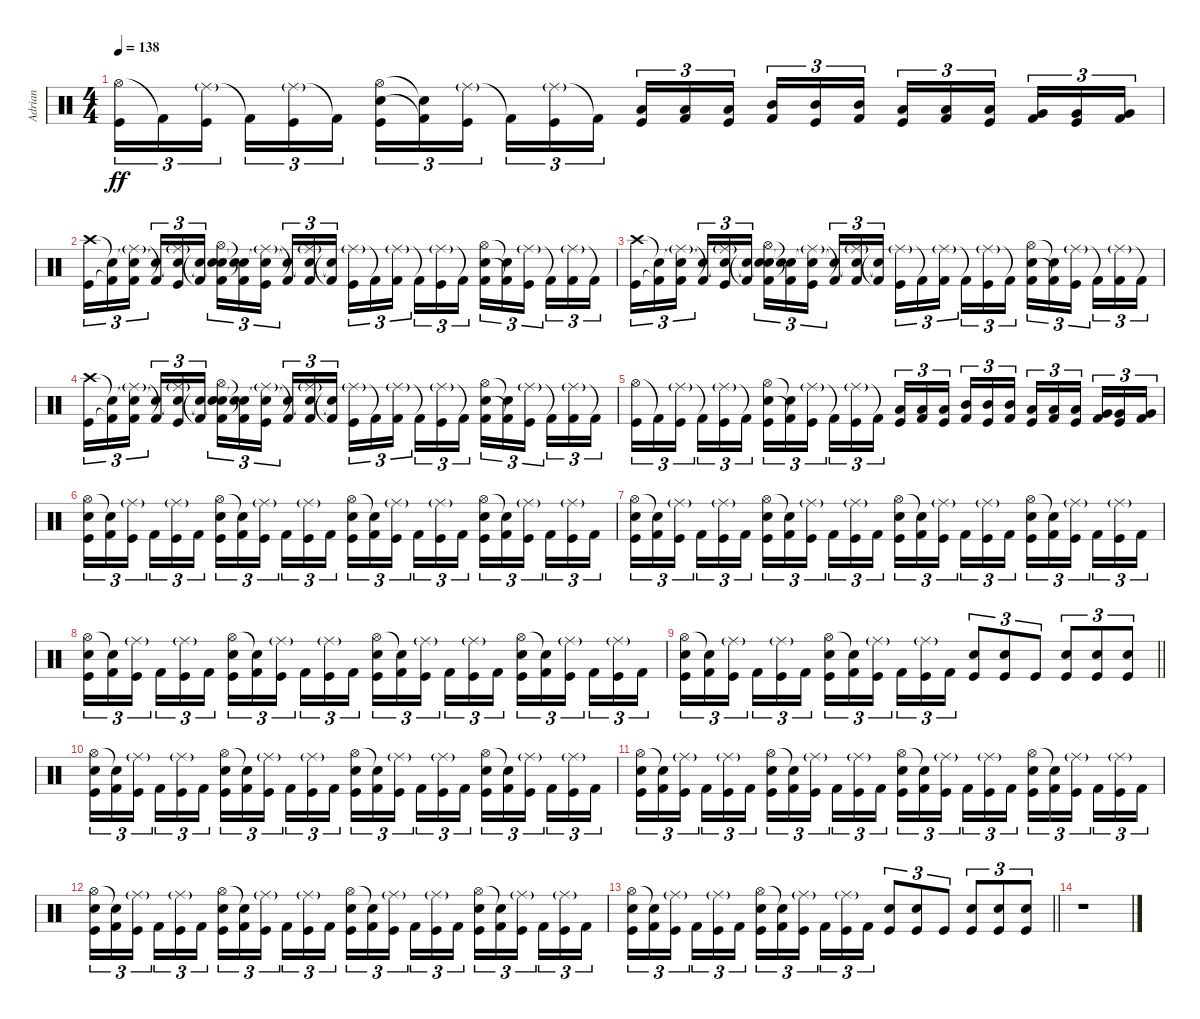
\track ("Adrian" "Adrian") {instrument percussion}
\staff {score}
\articulation defaults
\ts (4 4)
\tempo 138
\clef neutral
\ks c
("Hi-Hat (open)" "Kick (hit)").16{tu (3 2) dy ff} "Kick (hit) 2"{t}.16{tu (3 2)} ("Ride (middle)"{g} "Kick (hit)").16{tu (3 2) beam splitsecondary} "Kick (hit) 2"{t}.16{tu (3 2)} ("Ride (middle)"{g} "Kick (hit)").16{tu (3 2)} "Kick (hit) 2"{t}.16{tu (3 2)} ("Hi-Hat (open)" "Electric Snare (hit)" "Kick (hit)").16{tu (3 2)} ("Snare (hit)"{t} "Kick (hit) 2"{t}).16{tu (3 2)} ("Ride (middle)"{g} "Kick (hit)").16{tu (3 2) beam splitsecondary} "Kick (hit) 2"{t}.16{tu (3 2)} ("Ride (middle)"{g} "Kick (hit)").16{tu (3 2)} "Kick (hit) 2"{t}.16{tu (3 2)} ("Low Floor Tom (hit)" "Kick (hit)").16{tu (3 2)} ("Low Floor Tom (hit)" "Kick (hit) 2").16{tu (3 2)} ("Low Floor Tom (hit)" "Kick (hit)").16{tu (3 2) beam splitsecondary} ("Mid Tom (hit)" "Kick (hit) 2").16{tu (3 2)} ("Mid Tom (hit)" "Kick (hit)").16{tu (3 2)} ("Mid Tom (hit)" "Kick (hit) 2").16{tu (3 2)} ("Low Tom (hit)" "Kick (hit)").16{tu (3 2)} ("Low Tom (hit)" "Kick (hit) 2").16{tu (3 2)} ("Low Tom (hit)" "Kick (hit)").16{tu (3 2) beam splitsecondary} ("Very Low Tom (hit)" "Kick (hit) 2").16{tu (3 2)} ("Very Low Tom (hit)" "Kick (hit)").16{tu (3 2)} ("Very Low Tom (hit)" "Kick (hit) 2").16{tu (3 2)} |
("Crash high (hit)" "Kick (hit)").16{tu (3 2)} ("Snare (hit)"{t} "Kick (hit) 2"{t}).16{tu (3 2)} ("Snare (hit)"{t} "Ride (middle)"{g} "Kick (hit) 2").16{tu (3 2) beam splitsecondary} ("Snare (hit)"{t} "Kick (hit) 2"{t}).16{tu (3 2)} ("Snare (hit)"{t} "Ride (middle)"{g} "Kick (hit)").16{tu (3 2)} ("Snare (hit)"{t} "Kick (hit) 2"{t}).16{tu (3 2)} ("Snare (hit)"{t} "Hi-Hat (open)" "Electric Snare (hit)" "Kick (hit) 2").16{tu (3 2)} ("Snare (hit)"{t} "Snare (hit)"{t} "Kick (hit) 2"{t}).16{tu (3 2)} ("Snare (hit)"{t} "Ride (middle)"{g} "Kick (hit)").16{tu (3 2) beam splitsecondary} ("Snare (hit)"{t} "Kick (hit) 2"{t}).16{tu (3 2)} ("Snare (hit)"{t} "Ride (middle)"{g} "Kick (hit) 2").16{tu (3 2)} ("Snare (hit)"{t} "Kick (hit) 2"{t}).16{tu (3 2)} ("Ride (middle)"{g} "Kick (hit)").16{tu (3 2)} "Kick (hit) 2"{t}.16{tu (3 2)} ("Ride (middle)"{g} "Kick (hit) 2").16{tu (3 2) beam splitsecondary} "Kick (hit) 2"{t}.16{tu (3 2)} ("Ride (middle)"{g} "Kick (hit)").16{tu (3 2)} "Kick (hit) 2"{t}.16{tu (3 2)} ("Hi-Hat (open)" "Electric Snare (hit)" "Kick (hit) 2").16{tu (3 2)} ("Snare (hit)"{t} "Kick (hit) 2"{t}).16{tu (3 2)} ("Ride (middle)"{g} "Kick (hit)").16{tu (3 2) beam splitsecondary} "Kick (hit) 2"{t}.16{tu (3 2)} ("Ride (middle)"{g} "Kick (hit) 2").16{tu (3 2)} "Kick (hit) 2"{t}.16{tu (3 2)} |
("Crash high (hit)" "Kick (hit)").16{tu (3 2)} ("Snare (hit)"{t} "Kick (hit) 2"{t}).16{tu (3 2)} ("Snare (hit)"{t} "Ride (middle)"{g} "Kick (hit) 2").16{tu (3 2) beam splitsecondary} ("Snare (hit)"{t} "Kick (hit) 2"{t}).16{tu (3 2)} ("Snare (hit)"{t} "Ride (middle)"{g} "Kick (hit)").16{tu (3 2)} ("Snare (hit)"{t} "Kick (hit) 2"{t}).16{tu (3 2)} ("Snare (hit)"{t} "Hi-Hat (open)" "Electric Snare (hit)" "Kick (hit) 2").16{tu (3 2)} ("Snare (hit)"{t} "Snare (hit)"{t} "Kick (hit) 2"{t}).16{tu (3 2)} ("Snare (hit)"{t} "Ride (middle)"{g} "Kick (hit)").16{tu (3 2) beam splitsecondary} ("Snare (hit)"{t} "Kick (hit) 2"{t}).16{tu (3 2)} ("Snare (hit)"{t} "Ride (middle)"{g} "Kick (hit) 2").16{tu (3 2)} ("Snare (hit)"{t} "Kick (hit) 2"{t}).16{tu (3 2)} ("Ride (middle)"{g} "Kick (hit)").16{tu (3 2)} "Kick (hit) 2"{t}.16{tu (3 2)} ("Ride (middle)"{g} "Kick (hit) 2").16{tu (3 2) beam splitsecondary} "Kick (hit) 2"{t}.16{tu (3 2)} ("Ride (middle)"{g} "Kick (hit)").16{tu (3 2)} "Kick (hit) 2"{t}.16{tu (3 2)} ("Hi-Hat (open)" "Electric Snare (hit)" "Kick (hit) 2").16{tu (3 2)} ("Snare (hit)"{t} "Kick (hit) 2"{t}).16{tu (3 2)} ("Ride (middle)"{g} "Kick (hit)").16{tu (3 2) beam splitsecondary} "Kick (hit) 2"{t}.16{tu (3 2)} ("Ride (middle)"{g} "Kick (hit) 2").16{tu (3 2)} "Kick (hit) 2"{t}.16{tu (3 2)} |
("Crash high (hit)" "Kick (hit)").16{tu (3 2)} ("Snare (hit)"{t} "Kick (hit) 2"{t}).16{tu (3 2)} ("Snare (hit)"{t} "Ride (middle)"{g} "Kick (hit) 2").16{tu (3 2) beam splitsecondary} ("Snare (hit)"{t} "Kick (hit) 2"{t}).16{tu (3 2)} ("Snare (hit)"{t} "Ride (middle)"{g} "Kick (hit)").16{tu (3 2)} ("Snare (hit)"{t} "Kick (hit) 2"{t}).16{tu (3 2)} ("Snare (hit)"{t} "Hi-Hat (open)" "Electric Snare (hit)" "Kick (hit) 2").16{tu (3 2)} ("Snare (hit)"{t} "Snare (hit)"{t} "Kick (hit) 2"{t}).16{tu (3 2)} ("Snare (hit)"{t} "Ride (middle)"{g} "Kick (hit)").16{tu (3 2) beam splitsecondary} ("Snare (hit)"{t} "Kick (hit) 2"{t}).16{tu (3 2)} ("Snare (hit)"{t} "Ride (middle)"{g} "Kick (hit) 2").16{tu (3 2)} ("Snare (hit)"{t} "Kick (hit) 2"{t}).16{tu (3 2)} ("Ride (middle)"{g} "Kick (hit)").16{tu (3 2)} "Kick (hit) 2"{t}.16{tu (3 2)} ("Ride (middle)"{g} "Kick (hit) 2").16{tu (3 2) beam splitsecondary} "Kick (hit) 2"{t}.16{tu (3 2)} ("Ride (middle)"{g} "Kick (hit)").16{tu (3 2)} "Kick (hit) 2"{t}.16{tu (3 2)} ("Hi-Hat (open)" "Electric Snare (hit)" "Kick (hit) 2").16{tu (3 2)} ("Snare (hit)"{t} "Kick (hit) 2"{t}).16{tu (3 2)} ("Ride (middle)"{g} "Kick (hit)").16{tu (3 2) beam splitsecondary} "Kick (hit) 2"{t}.16{tu (3 2)} ("Ride (middle)"{g} "Kick (hit) 2").16{tu (3 2)} "Kick (hit) 2"{t}.16{tu (3 2)} |
("Hi-Hat (open)" "Kick (hit)").16{tu (3 2)} "Kick (hit) 2"{t}.16{tu (3 2)} ("Ride (middle)"{g} "Kick (hit)").16{tu (3 2) beam splitsecondary} "Kick (hit) 2"{t}.16{tu (3 2)} ("Ride (middle)"{g} "Kick (hit)").16{tu (3 2)} "Kick (hit) 2"{t}.16{tu (3 2)} ("Hi-Hat (open)" "Electric Snare (hit)" "Kick (hit)").16{tu (3 2)} ("Snare (hit)"{t} "Kick (hit) 2"{t}).16{tu (3 2)} ("Ride (middle)"{g} "Kick (hit)").16{tu (3 2) beam splitsecondary} "Kick (hit) 2"{t}.16{tu (3 2)} ("Ride (middle)"{g} "Kick (hit)").16{tu (3 2)} "Kick (hit) 2"{t}.16{tu (3 2)} ("Low Floor Tom (hit)" "Kick (hit)").16{tu (3 2)} ("Low Floor Tom (hit)" "Kick (hit) 2").16{tu (3 2)} ("Low Floor Tom (hit)" "Kick (hit)").16{tu (3 2) beam splitsecondary} ("Mid Tom (hit)" "Kick (hit) 2").16{tu (3 2)} ("Mid Tom (hit)" "Kick (hit)").16{tu (3 2)} ("Mid Tom (hit)" "Kick (hit) 2").16{tu (3 2)} ("Low Tom (hit)" "Kick (hit)").16{tu (3 2)} ("Low Tom (hit)" "Kick (hit) 2").16{tu (3 2)} ("Low Tom (hit)" "Kick (hit)").16{tu (3 2) beam splitsecondary} ("Very Low Tom (hit)" "Kick (hit) 2").16{tu (3 2)} ("Very Low Tom (hit)" "Kick (hit)").16{tu (3 2)} ("Very Low Tom (hit)" "Kick (hit) 2").16{tu (3 2)} |
("Hi-Hat (open)" "Electric Snare (hit)" "Kick (hit)").16{tu (3 2)} ("Snare (hit)"{t} "Kick (hit) 2").16{tu (3 2)} ("Ride (middle)"{g} "Kick (hit)").16{tu (3 2) beam splitsecondary} "Kick (hit) 2".16{tu (3 2)} ("Ride (middle)"{g} "Kick (hit)").16{tu (3 2)} "Kick (hit) 2".16{tu (3 2)} ("Hi-Hat (open)" "Electric Snare (hit)" "Kick (hit)").16{tu (3 2)} ("Snare (hit)"{t} "Kick (hit) 2").16{tu (3 2)} ("Ride (middle)"{g} "Kick (hit)").16{tu (3 2) beam splitsecondary} "Kick (hit) 2".16{tu (3 2)} ("Ride (middle)"{g} "Kick (hit)").16{tu (3 2)} "Kick (hit) 2".16{tu (3 2)} ("Hi-Hat (open)" "Electric Snare (hit)" "Kick (hit)").16{tu (3 2)} ("Snare (hit)"{t} "Kick (hit) 2").16{tu (3 2)} ("Ride (middle)"{g} "Kick (hit)").16{tu (3 2) beam splitsecondary} "Kick (hit) 2".16{tu (3 2)} ("Ride (middle)"{g} "Kick (hit)").16{tu (3 2)} "Kick (hit) 2".16{tu (3 2)} ("Hi-Hat (open)" "Electric Snare (hit)" "Kick (hit)").16{tu (3 2)} ("Snare (hit)"{t} "Kick (hit) 2").16{tu (3 2)} ("Ride (middle)"{g} "Kick (hit)").16{tu (3 2) beam splitsecondary} "Kick (hit) 2".16{tu (3 2)} ("Ride (middle)"{g} "Kick (hit)").16{tu (3 2)} "Kick (hit) 2".16{tu (3 2)} |
("Hi-Hat (open)" "Electric Snare (hit)" "Kick (hit)").16{tu (3 2)} ("Snare (hit)"{t} "Kick (hit) 2").16{tu (3 2)} ("Ride (middle)"{g} "Kick (hit)").16{tu (3 2) beam splitsecondary} "Kick (hit) 2".16{tu (3 2)} ("Ride (middle)"{g} "Kick (hit)").16{tu (3 2)} "Kick (hit) 2".16{tu (3 2)} ("Hi-Hat (open)" "Electric Snare (hit)" "Kick (hit)").16{tu (3 2)} ("Snare (hit)"{t} "Kick (hit) 2").16{tu (3 2)} ("Ride (middle)"{g} "Kick (hit)").16{tu (3 2) beam splitsecondary} "Kick (hit) 2".16{tu (3 2)} ("Ride (middle)"{g} "Kick (hit)").16{tu (3 2)} "Kick (hit) 2".16{tu (3 2)} ("Hi-Hat (open)" "Electric Snare (hit)" "Kick (hit)").16{tu (3 2)} ("Snare (hit)"{t} "Kick (hit) 2").16{tu (3 2)} ("Ride (middle)"{g} "Kick (hit)").16{tu (3 2) beam splitsecondary} "Kick (hit) 2".16{tu (3 2)} ("Ride (middle)"{g} "Kick (hit)").16{tu (3 2)} "Kick (hit) 2".16{tu (3 2)} ("Hi-Hat (open)" "Electric Snare (hit)" "Kick (hit)").16{tu (3 2)} ("Snare (hit)"{t} "Kick (hit) 2").16{tu (3 2)} ("Ride (middle)"{g} "Kick (hit)").16{tu (3 2) beam splitsecondary} "Kick (hit) 2".16{tu (3 2)} ("Ride (middle)"{g} "Kick (hit)").16{tu (3 2)} "Kick (hit) 2".16{tu (3 2)} |
("Hi-Hat (open)" "Electric Snare (hit)" "Kick (hit)").16{tu (3 2)} ("Snare (hit)"{t} "Kick (hit) 2").16{tu (3 2)} ("Ride (middle)"{g} "Kick (hit)").16{tu (3 2) beam splitsecondary} "Kick (hit) 2".16{tu (3 2)} ("Ride (middle)"{g} "Kick (hit)").16{tu (3 2)} "Kick (hit) 2".16{tu (3 2)} ("Hi-Hat (open)" "Electric Snare (hit)" "Kick (hit)").16{tu (3 2)} ("Snare (hit)"{t} "Kick (hit) 2").16{tu (3 2)} ("Ride (middle)"{g} "Kick (hit)").16{tu (3 2) beam splitsecondary} "Kick (hit) 2".16{tu (3 2)} ("Ride (middle)"{g} "Kick (hit)").16{tu (3 2)} "Kick (hit) 2".16{tu (3 2)} ("Hi-Hat (open)" "Electric Snare (hit)" "Kick (hit)").16{tu (3 2)} ("Snare (hit)"{t} "Kick (hit) 2").16{tu (3 2)} ("Ride (middle)"{g} "Kick (hit)").16{tu (3 2) beam splitsecondary} "Kick (hit) 2".16{tu (3 2)} ("Ride (middle)"{g} "Kick (hit)").16{tu (3 2)} "Kick (hit) 2".16{tu (3 2)} ("Hi-Hat (open)" "Electric Snare (hit)" "Kick (hit)").16{tu (3 2)} ("Snare (hit)"{t} "Kick (hit) 2").16{tu (3 2)} ("Ride (middle)"{g} "Kick (hit)").16{tu (3 2) beam splitsecondary} "Kick (hit) 2".16{tu (3 2)} ("Ride (middle)"{g} "Kick (hit)").16{tu (3 2)} "Kick (hit) 2".16{tu (3 2)} |
\barLineRight lightlight
("Hi-Hat (open)" "Electric Snare (hit)" "Kick (hit)").16{tu (3 2)} ("Snare (hit)"{t} "Kick (hit) 2").16{tu (3 2)} ("Ride (middle)"{g} "Kick (hit)").16{tu (3 2) beam splitsecondary} "Kick (hit) 2".16{tu (3 2)} ("Ride (middle)"{g} "Kick (hit)").16{tu (3 2)} "Kick (hit) 2".16{tu (3 2)} ("Hi-Hat (open)" "Electric Snare (hit)" "Kick (hit)").16{tu (3 2)} ("Snare (hit)"{t} "Kick (hit) 2").16{tu (3 2)} ("Ride (middle)"{g} "Kick (hit)").16{tu (3 2) beam splitsecondary} "Kick (hit) 2".16{tu (3 2)} ("Ride (middle)"{g} "Kick (hit)").16{tu (3 2)} "Kick (hit) 2".16{tu (3 2)} ("Electric Snare (hit)" "Kick (hit)").8{tu (3 2)} ("Electric Snare (hit)" "Kick (hit)").8{tu (3 2)} "Kick (hit)".8{tu (3 2)} ("Electric Snare (hit)" "Kick (hit)").8{tu (3 2)} ("Electric Snare (hit)" "Kick (hit)").8{tu (3 2)} ("Electric Snare (hit)" "Kick (hit)").8{tu (3 2)} |
("Hi-Hat (open)" "Electric Snare (hit)" "Kick (hit)").16{tu (3 2)} ("Snare (hit)"{t} "Kick (hit) 2").16{tu (3 2)} ("Ride (middle)"{g} "Kick (hit)").16{tu (3 2) beam splitsecondary} "Kick (hit) 2".16{tu (3 2)} ("Ride (middle)"{g} "Kick (hit)").16{tu (3 2)} "Kick (hit) 2".16{tu (3 2)} ("Hi-Hat (open)" "Electric Snare (hit)" "Kick (hit)").16{tu (3 2)} ("Snare (hit)"{t} "Kick (hit) 2").16{tu (3 2)} ("Ride (middle)"{g} "Kick (hit)").16{tu (3 2) beam splitsecondary} "Kick (hit) 2".16{tu (3 2)} ("Ride (middle)"{g} "Kick (hit)").16{tu (3 2)} "Kick (hit) 2".16{tu (3 2)} ("Hi-Hat (open)" "Electric Snare (hit)" "Kick (hit)").16{tu (3 2)} ("Snare (hit)"{t} "Kick (hit) 2").16{tu (3 2)} ("Ride (middle)"{g} "Kick (hit)").16{tu (3 2) beam splitsecondary} "Kick (hit) 2".16{tu (3 2)} ("Ride (middle)"{g} "Kick (hit)").16{tu (3 2)} "Kick (hit) 2".16{tu (3 2)} ("Hi-Hat (open)" "Electric Snare (hit)" "Kick (hit)").16{tu (3 2)} ("Snare (hit)"{t} "Kick (hit) 2").16{tu (3 2)} ("Ride (middle)"{g} "Kick (hit)").16{tu (3 2) beam splitsecondary} "Kick (hit) 2".16{tu (3 2)} ("Ride (middle)"{g} "Kick (hit)").16{tu (3 2)} "Kick (hit) 2".16{tu (3 2)} |
("Hi-Hat (open)" "Electric Snare (hit)" "Kick (hit)").16{tu (3 2)} ("Snare (hit)"{t} "Kick (hit) 2").16{tu (3 2)} ("Ride (middle)"{g} "Kick (hit)").16{tu (3 2) beam splitsecondary} "Kick (hit) 2".16{tu (3 2)} ("Ride (middle)"{g} "Kick (hit)").16{tu (3 2)} "Kick (hit) 2".16{tu (3 2)} ("Hi-Hat (open)" "Electric Snare (hit)" "Kick (hit)").16{tu (3 2)} ("Snare (hit)"{t} "Kick (hit) 2").16{tu (3 2)} ("Ride (middle)"{g} "Kick (hit)").16{tu (3 2) beam splitsecondary} "Kick (hit) 2".16{tu (3 2)} ("Ride (middle)"{g} "Kick (hit)").16{tu (3 2)} "Kick (hit) 2".16{tu (3 2)} ("Hi-Hat (open)" "Electric Snare (hit)" "Kick (hit)").16{tu (3 2)} ("Snare (hit)"{t} "Kick (hit) 2").16{tu (3 2)} ("Ride (middle)"{g} "Kick (hit)").16{tu (3 2) beam splitsecondary} "Kick (hit) 2".16{tu (3 2)} ("Ride (middle)"{g} "Kick (hit)").16{tu (3 2)} "Kick (hit) 2".16{tu (3 2)} ("Hi-Hat (open)" "Electric Snare (hit)" "Kick (hit)").16{tu (3 2)} ("Snare (hit)"{t} "Kick (hit) 2").16{tu (3 2)} ("Ride (middle)"{g} "Kick (hit)").16{tu (3 2) beam splitsecondary} "Kick (hit) 2".16{tu (3 2)} ("Ride (middle)"{g} "Kick (hit)").16{tu (3 2)} "Kick (hit) 2".16{tu (3 2)} |
("Hi-Hat (open)" "Electric Snare (hit)" "Kick (hit)").16{tu (3 2)} ("Snare (hit)"{t} "Kick (hit) 2").16{tu (3 2)} ("Ride (middle)"{g} "Kick (hit)").16{tu (3 2) beam splitsecondary} "Kick (hit) 2".16{tu (3 2)} ("Ride (middle)"{g} "Kick (hit)").16{tu (3 2)} "Kick (hit) 2".16{tu (3 2)} ("Hi-Hat (open)" "Electric Snare (hit)" "Kick (hit)").16{tu (3 2)} ("Snare (hit)"{t} "Kick (hit) 2").16{tu (3 2)} ("Ride (middle)"{g} "Kick (hit)").16{tu (3 2) beam splitsecondary} "Kick (hit) 2".16{tu (3 2)} ("Ride (middle)"{g} "Kick (hit)").16{tu (3 2)} "Kick (hit) 2".16{tu (3 2)} ("Hi-Hat (open)" "Electric Snare (hit)" "Kick (hit)").16{tu (3 2)} ("Snare (hit)"{t} "Kick (hit) 2").16{tu (3 2)} ("Ride (middle)"{g} "Kick (hit)").16{tu (3 2) beam splitsecondary} "Kick (hit) 2".16{tu (3 2)} ("Ride (middle)"{g} "Kick (hit)").16{tu (3 2)} "Kick (hit) 2".16{tu (3 2)} ("Hi-Hat (open)" "Electric Snare (hit)" "Kick (hit)").16{tu (3 2)} ("Snare (hit)"{t} "Kick (hit) 2").16{tu (3 2)} ("Ride (middle)"{g} "Kick (hit)").16{tu (3 2) beam splitsecondary} "Kick (hit) 2".16{tu (3 2)} ("Ride (middle)"{g} "Kick (hit)").16{tu (3 2)} "Kick (hit) 2".16{tu (3 2)} |
\barLineRight lightlight
("Hi-Hat (open)" "Electric Snare (hit)" "Kick (hit)").16{tu (3 2)} ("Snare (hit)"{t} "Kick (hit) 2").16{tu (3 2)} ("Ride (middle)"{g} "Kick (hit)").16{tu (3 2) beam splitsecondary} "Kick (hit) 2".16{tu (3 2)} ("Ride (middle)"{g} "Kick (hit)").16{tu (3 2)} "Kick (hit) 2".16{tu (3 2)} ("Hi-Hat (open)" "Electric Snare (hit)" "Kick (hit)").16{tu (3 2)} ("Snare (hit)"{t} "Kick (hit) 2").16{tu (3 2)} ("Ride (middle)"{g} "Kick (hit)").16{tu (3 2) beam splitsecondary} "Kick (hit) 2".16{tu (3 2)} ("Ride (middle)"{g} "Kick (hit)").16{tu (3 2)} "Kick (hit) 2".16{tu (3 2)} ("Electric Snare (hit)" "Kick (hit)").8{tu (3 2)} ("Electric Snare (hit)" "Kick (hit)").8{tu (3 2)} "Kick (hit)".8{tu (3 2)} ("Electric Snare (hit)" "Kick (hit)").8{tu (3 2)} ("Electric Snare (hit)" "Kick (hit)").8{tu (3 2)} ("Electric Snare (hit)" "Kick (hit)").8{tu (3 2)} |
r.1
